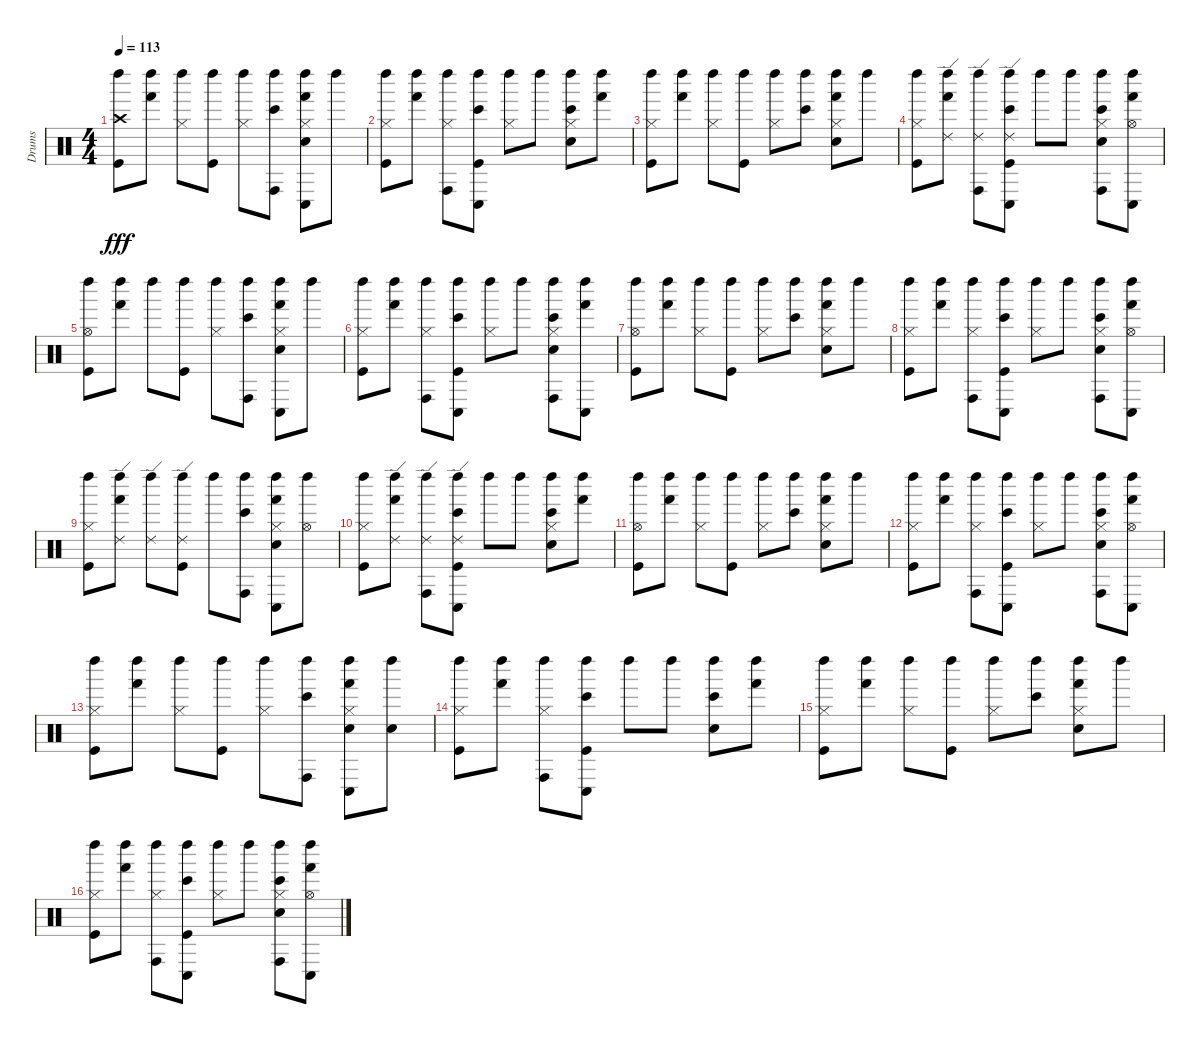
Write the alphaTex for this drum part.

\track ("Drums" "Drums") {instrument percussion}
\staff {score}
\articulation defaults
\ts (4 4)
\tempo 113
\clef neutral
\ks c
("Crash high (hit)" "Left Maraca (hit)" "Kick (hit)").8{dy fff} ("Left Maraca (hit)" "Hand (hit)").8 ("Hi-Hat (closed)" "Left Maraca (hit)").8 ("Left Maraca (hit)" "Kick (hit)").8 ("Hi-Hat (closed)" "Left Maraca (hit)").8 ("Left Maraca (hit)" "Conga high (hit)" "Bongo High (hit)").8 ("Hi-Hat (closed)" "Left Maraca (hit)" "Conga low (hit)" "Hand (hit)" "Snare (hit) 2").8 "Left Maraca (hit)".8 |
("Hi-Hat (closed)" "Left Maraca (hit)" "Kick (hit)").8 ("Left Maraca (hit)" "Hand (hit)").8 ("Hi-Hat (closed)" "Left Maraca (hit)" "Conga high (hit)").8 ("Left Maraca (hit)" "Conga low (hit)" "Bongo High (hit)" "Kick (hit)").8 ("Hi-Hat (closed)" "Left Maraca (hit)").8 "Left Maraca (hit)".8 ("Hi-Hat (closed)" "Left Maraca (hit)" "Bongo High (hit)" "Snare (hit) 2").8 ("Left Maraca (hit)" "Hand (hit)").8 |
("Hi-Hat (closed)" "Left Maraca (hit)" "Kick (hit)").8 ("Left Maraca (hit)" "Hand (hit)").8 ("Hi-Hat (closed)" "Left Maraca (hit)").8 ("Left Maraca (hit)" "Kick (hit)").8 ("Hi-Hat (closed)" "Left Maraca (hit)").8 ("Left Maraca (hit)" "Bongo High (hit)").8 ("Hi-Hat (closed)" "Left Maraca (hit)" "Hand (hit)" "Snare (hit) 2").8 "Left Maraca (hit)".8 |
("Hi-Hat (closed)" "Left Maraca (hit)" "Kick (hit)").8 ("Ride (edge) 2" "Left Maraca (hit)" "Hand (hit)").8 ("Ride (edge) 2" "Left Maraca (hit)" "Conga high (hit)").8 ("Ride (edge) 2" "Left Maraca (hit)" "Conga low (hit)" "Bongo High (hit)" "Kick (hit)").8 "Left Maraca (hit)".8 "Left Maraca (hit)".8 ("Hi-Hat (closed)" "Left Maraca (hit)" "Conga high (hit)" "Bongo High (hit)" "Snare (hit) 2").8 ("Hi-Hat (open)" "Left Maraca (hit)" "Conga low (hit)" "Hand (hit)").8 |
("Hi-Hat (open)" "Left Maraca (hit)" "Kick (hit)").8 ("Left Maraca (hit)" "Hand (hit)").8 "Left Maraca (hit)".8 ("Left Maraca (hit)" "Kick (hit)").8 ("Hi-Hat (closed)" "Left Maraca (hit)").8 ("Left Maraca (hit)" "Conga high (hit)" "Bongo High (hit)").8 ("Hi-Hat (closed)" "Left Maraca (hit)" "Conga low (hit)" "Hand (hit)" "Snare (hit) 2").8 "Left Maraca (hit)".8 |
("Hi-Hat (closed)" "Left Maraca (hit)" "Kick (hit)").8 ("Left Maraca (hit)" "Hand (hit)").8 ("Hi-Hat (closed)" "Left Maraca (hit)" "Conga high (hit)").8 ("Left Maraca (hit)" "Conga low (hit)" "Bongo High (hit)" "Kick (hit)").8 ("Hi-Hat (closed)" "Left Maraca (hit)").8 "Left Maraca (hit)".8 ("Hi-Hat (closed)" "Left Maraca (hit)" "Conga high (hit)" "Bongo High (hit)" "Snare (hit) 2").8 ("Left Maraca (hit)" "Conga low (hit)" "Hand (hit)").8 |
("Hi-Hat (open)" "Left Maraca (hit)" "Kick (hit)").8 ("Left Maraca (hit)" "Hand (hit)").8 ("Hi-Hat (closed)" "Left Maraca (hit)").8 ("Left Maraca (hit)" "Kick (hit)").8 ("Hi-Hat (closed)" "Left Maraca (hit)").8 ("Left Maraca (hit)" "Bongo High (hit)").8 ("Hi-Hat (closed)" "Left Maraca (hit)" "Hand (hit)" "Snare (hit) 2").8 "Left Maraca (hit)".8 |
("Hi-Hat (closed)" "Left Maraca (hit)" "Kick (hit)").8 ("Left Maraca (hit)" "Hand (hit)").8 ("Hi-Hat (closed)" "Left Maraca (hit)" "Conga high (hit)").8 ("Left Maraca (hit)" "Conga low (hit)" "Bongo High (hit)" "Kick (hit)").8 ("Hi-Hat (closed)" "Left Maraca (hit)").8 "Left Maraca (hit)".8 ("Hi-Hat (closed)" "Left Maraca (hit)" "Conga high (hit)" "Bongo High (hit)" "Snare (hit) 2").8 ("Hi-Hat (open)" "Left Maraca (hit)" "Conga low (hit)" "Hand (hit)").8 |
("Hi-Hat (closed)" "Left Maraca (hit)" "Kick (hit)").8 ("Ride (edge) 2" "Left Maraca (hit)" "Hand (hit)").8 ("Ride (edge) 2" "Left Maraca (hit)").8 ("Ride (edge) 2" "Left Maraca (hit)" "Kick (hit)").8 "Left Maraca (hit)".8 ("Left Maraca (hit)" "Conga high (hit)" "Bongo High (hit)").8 ("Hi-Hat (closed)" "Left Maraca (hit)" "Conga low (hit)" "Hand (hit)" "Snare (hit) 2").8 ("Hi-Hat (open)" "Left Maraca (hit)").8 |
("Hi-Hat (closed)" "Left Maraca (hit)" "Kick (hit)").8 ("Ride (edge) 2" "Left Maraca (hit)" "Hand (hit)").8 ("Ride (edge) 2" "Left Maraca (hit)" "Conga high (hit)").8 ("Ride (edge) 2" "Left Maraca (hit)" "Conga low (hit)" "Bongo High (hit)" "Kick (hit)").8 "Left Maraca (hit)".8 "Left Maraca (hit)".8 ("Hi-Hat (closed)" "Left Maraca (hit)" "Bongo High (hit)" "Snare (hit) 2").8 ("Left Maraca (hit)" "Hand (hit)").8 |
("Hi-Hat (open)" "Left Maraca (hit)" "Kick (hit)").8 ("Left Maraca (hit)" "Hand (hit)").8 ("Hi-Hat (closed)" "Left Maraca (hit)").8 ("Left Maraca (hit)" "Kick (hit)").8 ("Hi-Hat (closed)" "Left Maraca (hit)").8 ("Left Maraca (hit)" "Bongo High (hit)").8 ("Hi-Hat (closed)" "Left Maraca (hit)" "Hand (hit)" "Snare (hit) 2").8 "Left Maraca (hit)".8 |
("Hi-Hat (closed)" "Left Maraca (hit)" "Kick (hit)").8 ("Left Maraca (hit)" "Hand (hit)").8 ("Hi-Hat (closed)" "Left Maraca (hit)" "Conga high (hit)").8 ("Left Maraca (hit)" "Conga low (hit)" "Bongo High (hit)" "Kick (hit)").8 ("Hi-Hat (closed)" "Left Maraca (hit)").8 "Left Maraca (hit)".8 ("Hi-Hat (closed)" "Left Maraca (hit)" "Conga high (hit)" "Bongo High (hit)" "Snare (hit) 2").8 ("Hi-Hat (open)" "Left Maraca (hit)" "Conga low (hit)" "Hand (hit)").8 |
("Hi-Hat (closed)" "Left Maraca (hit)" "Kick (hit)").8 ("Left Maraca (hit)" "Hand (hit)").8 ("Hi-Hat (closed)" "Left Maraca (hit)").8 ("Left Maraca (hit)" "Kick (hit)").8 ("Hi-Hat (closed)" "Left Maraca (hit)").8 ("Left Maraca (hit)" "Conga high (hit)" "Bongo High (hit)").8 ("Hi-Hat (closed)" "Left Maraca (hit)" "Conga low (hit)" "Hand (hit)" "Snare (hit) 2").8 ("Left Maraca (hit)" "Snare (hit) 2").8 |
("Hi-Hat (closed)" "Left Maraca (hit)" "Kick (hit)").8 ("Left Maraca (hit)" "Hand (hit)").8 ("Hi-Hat (closed)" "Left Maraca (hit)" "Conga high (hit)").8 ("Left Maraca (hit)" "Conga low (hit)" "Bongo High (hit)" "Kick (hit)").8 "Left Maraca (hit)".8 "Left Maraca (hit)".8 ("Left Maraca (hit)" "Bongo High (hit)" "Snare (hit) 2").8 ("Left Maraca (hit)" "Hand (hit)").8 |
("Hi-Hat (closed)" "Left Maraca (hit)" "Kick (hit)").8 ("Left Maraca (hit)" "Hand (hit)").8 ("Hi-Hat (closed)" "Left Maraca (hit)").8 ("Left Maraca (hit)" "Kick (hit)").8 ("Hi-Hat (closed)" "Left Maraca (hit)").8 ("Left Maraca (hit)" "Bongo High (hit)").8 ("Hi-Hat (closed)" "Left Maraca (hit)" "Hand (hit)" "Snare (hit) 2").8 "Left Maraca (hit)".8 |
("Hi-Hat (closed)" "Left Maraca (hit)" "Kick (hit)").8 ("Left Maraca (hit)" "Hand (hit)").8 ("Hi-Hat (closed)" "Left Maraca (hit)" "Conga high (hit)").8 ("Left Maraca (hit)" "Conga low (hit)" "Bongo High (hit)" "Kick (hit)").8 ("Hi-Hat (closed)" "Left Maraca (hit)").8 "Left Maraca (hit)".8 ("Hi-Hat (closed)" "Left Maraca (hit)" "Conga high (hit)" "Bongo High (hit)" "Snare (hit) 2").8 ("Hi-Hat (open)" "Left Maraca (hit)" "Conga low (hit)" "Hand (hit)").8
